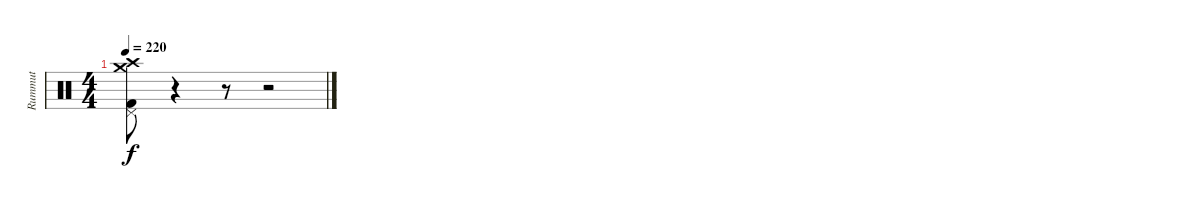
\track ("Rummut" "Rummut") {instrument percussion}
\staff {score}
\articulation defaults
\ts (4 4)
\tempo 220
\clef neutral
\ks c
("Pedal Hi-Hat (hit)" "Crash medium (hit)" "Kick (hit) 2" "Crash high (hit)").8{dy f} r.4 r.8 r.2
